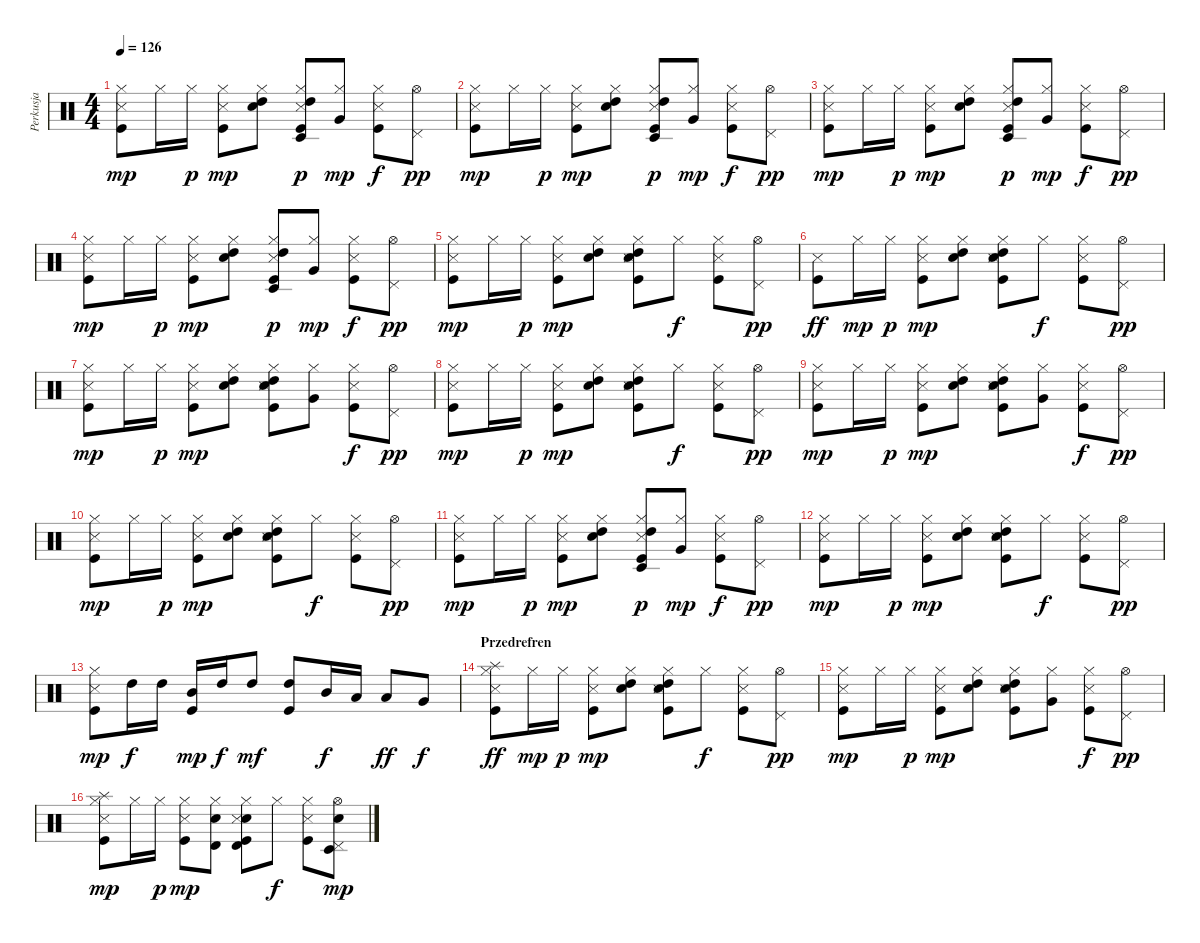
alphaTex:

\track ("Perkusja" "Perkusja") {instrument percussion}
\staff {score}
\articulation defaults
\ts (4 4)
\tempo 126
\clef neutral
\ks c
("Hi-Hat (closed)" "Kick (hit)" "Snare (side stick) 3").8{dy mp} "Hi-Hat (closed)".16 "Hi-Hat (closed)".16{dy p} ("Hi-Hat (closed)" "Kick (hit)" "Snare (side stick) 3").8{dy mp} ("Hi-Hat (closed)" "High Tom (hit)" "Electric Snare (hit)").8 ("Hi-Hat (closed)" "Kick (hit)" "High Tom (hit)" "Timbale low (hit)" "Snare (side stick) 3").8{dy p} ("Hi-Hat (closed)" "Very Low Tom (hit)").8{dy mp} ("Hi-Hat (closed)" "Kick (hit)" "Snare (side stick) 3").8{dy f} ("Hi-Hat (open)" "Pedal Hi-Hat (hit)").8{dy pp} |
("Hi-Hat (closed)" "Kick (hit)" "Snare (side stick) 3").8{dy mp} "Hi-Hat (closed)".16 "Hi-Hat (closed)".16{dy p} ("Hi-Hat (closed)" "Kick (hit)" "Snare (side stick) 3").8{dy mp} ("Hi-Hat (closed)" "High Tom (hit)" "Electric Snare (hit)").8 ("Hi-Hat (closed)" "Kick (hit)" "High Tom (hit)" "Timbale low (hit)" "Snare (side stick) 3").8{dy p} ("Hi-Hat (closed)" "Very Low Tom (hit)").8{dy mp} ("Hi-Hat (closed)" "Kick (hit)" "Snare (side stick) 3").8{dy f} ("Hi-Hat (open)" "Pedal Hi-Hat (hit)").8{dy pp} |
("Hi-Hat (closed)" "Kick (hit)" "Snare (side stick) 3").8{dy mp} "Hi-Hat (closed)".16 "Hi-Hat (closed)".16{dy p} ("Hi-Hat (closed)" "Kick (hit)" "Snare (side stick) 3").8{dy mp} ("Hi-Hat (closed)" "High Tom (hit)" "Electric Snare (hit)").8 ("Hi-Hat (closed)" "Kick (hit)" "High Tom (hit)" "Timbale low (hit)" "Snare (side stick) 3").8{dy p} ("Hi-Hat (closed)" "Very Low Tom (hit)").8{dy mp} ("Hi-Hat (closed)" "Kick (hit)" "Snare (side stick) 3").8{dy f} ("Hi-Hat (open)" "Pedal Hi-Hat (hit)").8{dy pp} |
("Hi-Hat (closed)" "Kick (hit)" "Snare (side stick) 3").8{dy mp} "Hi-Hat (closed)".16 "Hi-Hat (closed)".16{dy p} ("Hi-Hat (closed)" "Kick (hit)" "Snare (side stick) 3").8{dy mp} ("Hi-Hat (closed)" "High Tom (hit)" "Electric Snare (hit)").8 ("Hi-Hat (closed)" "Kick (hit)" "High Tom (hit)" "Timbale low (hit)" "Snare (side stick) 3").8{dy p} ("Hi-Hat (closed)" "Very Low Tom (hit)").8{dy mp} ("Hi-Hat (closed)" "Kick (hit)" "Snare (side stick) 3").8{dy f} ("Hi-Hat (open)" "Pedal Hi-Hat (hit)").8{dy pp} |
("Hi-Hat (closed)" "Kick (hit)" "Snare (side stick) 3").8{dy mp} "Hi-Hat (closed)".16 "Hi-Hat (closed)".16{dy p} ("Hi-Hat (closed)" "Kick (hit)" "Snare (side stick) 3").8{dy mp} ("Hi-Hat (closed)" "High Tom (hit)" "Electric Snare (hit)").8 ("Hi-Hat (closed)" "Kick (hit)" "High Tom (hit)" "Electric Snare (hit)" "Snare (side stick) 3").8 "Hi-Hat (closed)".8{dy f} ("Hi-Hat (closed)" "Kick (hit)" "Snare (side stick) 3").8 ("Hi-Hat (open)" "Pedal Hi-Hat (hit)").8{dy pp} |
("Kick (hit)" "Snare (side stick) 3").8{dy ff} "Hi-Hat (closed)".16{dy mp} "Hi-Hat (closed)".16{dy p} ("Hi-Hat (closed)" "Kick (hit)" "Snare (side stick) 3").8{dy mp} ("Hi-Hat (closed)" "High Tom (hit)" "Electric Snare (hit)").8 ("Hi-Hat (closed)" "Kick (hit)" "High Tom (hit)" "Electric Snare (hit)" "Snare (side stick) 3").8 "Hi-Hat (closed)".8{dy f} ("Hi-Hat (closed)" "Kick (hit)" "Snare (side stick) 3").8 ("Hi-Hat (open)" "Pedal Hi-Hat (hit)").8{dy pp} |
("Hi-Hat (closed)" "Kick (hit)" "Snare (side stick) 3").8{dy mp} "Hi-Hat (closed)".16 "Hi-Hat (closed)".16{dy p} ("Hi-Hat (closed)" "Kick (hit)" "Snare (side stick) 3").8{dy mp} ("Hi-Hat (closed)" "High Tom (hit)" "Electric Snare (hit)").8 ("Hi-Hat (closed)" "Kick (hit)" "High Tom (hit)" "Electric Snare (hit)" "Snare (side stick) 3").8 ("Hi-Hat (closed)" "Very Low Tom (hit)").8 ("Hi-Hat (closed)" "Kick (hit)" "Snare (side stick) 3").8{dy f} ("Hi-Hat (open)" "Pedal Hi-Hat (hit)").8{dy pp} |
("Hi-Hat (closed)" "Kick (hit)" "Snare (side stick) 3").8{dy mp} "Hi-Hat (closed)".16 "Hi-Hat (closed)".16{dy p} ("Hi-Hat (closed)" "Kick (hit)" "Snare (side stick) 3").8{dy mp} ("Hi-Hat (closed)" "High Tom (hit)" "Electric Snare (hit)").8 ("Hi-Hat (closed)" "Kick (hit)" "High Tom (hit)" "Electric Snare (hit)" "Snare (side stick) 3").8 "Hi-Hat (closed)".8{dy f} ("Hi-Hat (closed)" "Kick (hit)" "Snare (side stick) 3").8 ("Hi-Hat (open)" "Pedal Hi-Hat (hit)").8{dy pp} |
("Hi-Hat (closed)" "Kick (hit)" "Snare (side stick) 3").8{dy mp} "Hi-Hat (closed)".16 "Hi-Hat (closed)".16{dy p} ("Hi-Hat (closed)" "Kick (hit)" "Snare (side stick) 3").8{dy mp} ("Hi-Hat (closed)" "High Tom (hit)" "Electric Snare (hit)").8 ("Hi-Hat (closed)" "Kick (hit)" "High Tom (hit)" "Electric Snare (hit)" "Snare (side stick) 3").8 ("Hi-Hat (closed)" "Very Low Tom (hit)").8 ("Hi-Hat (closed)" "Kick (hit)" "Snare (side stick) 3").8{dy f} ("Hi-Hat (open)" "Pedal Hi-Hat (hit)").8{dy pp} |
("Hi-Hat (closed)" "Kick (hit)" "Snare (side stick) 3").8{dy mp} "Hi-Hat (closed)".16 "Hi-Hat (closed)".16{dy p} ("Hi-Hat (closed)" "Kick (hit)" "Snare (side stick) 3").8{dy mp} ("Hi-Hat (closed)" "High Tom (hit)" "Electric Snare (hit)").8 ("Hi-Hat (closed)" "Kick (hit)" "High Tom (hit)" "Electric Snare (hit)" "Snare (side stick) 3").8 "Hi-Hat (closed)".8{dy f} ("Hi-Hat (closed)" "Kick (hit)" "Snare (side stick) 3").8 ("Hi-Hat (open)" "Pedal Hi-Hat (hit)").8{dy pp} |
("Hi-Hat (closed)" "Kick (hit)" "Snare (side stick) 3").8{dy mp} "Hi-Hat (closed)".16 "Hi-Hat (closed)".16{dy p} ("Hi-Hat (closed)" "Kick (hit)" "Snare (side stick) 3").8{dy mp} ("Hi-Hat (closed)" "High Tom (hit)" "Electric Snare (hit)").8 ("Hi-Hat (closed)" "Kick (hit)" "High Tom (hit)" "Timbale low (hit)" "Snare (side stick) 3").8{dy p} ("Hi-Hat (closed)" "Very Low Tom (hit)").8{dy mp} ("Hi-Hat (closed)" "Kick (hit)" "Snare (side stick) 3").8{dy f} ("Hi-Hat (open)" "Pedal Hi-Hat (hit)").8{dy pp} |
("Hi-Hat (closed)" "Kick (hit)" "Snare (side stick) 3").8{dy mp} "Hi-Hat (closed)".16 "Hi-Hat (closed)".16{dy p} ("Hi-Hat (closed)" "Kick (hit)" "Snare (side stick) 3").8{dy mp} ("Hi-Hat (closed)" "High Tom (hit)" "Electric Snare (hit)").8 ("Hi-Hat (closed)" "Kick (hit)" "High Tom (hit)" "Electric Snare (hit)" "Snare (side stick) 3").8 "Hi-Hat (closed)".8{dy f} ("Hi-Hat (closed)" "Kick (hit)" "Snare (side stick) 3").8 ("Hi-Hat (open)" "Pedal Hi-Hat (hit)").8{dy pp} |
("Hi-Hat (closed)" "Kick (hit)" "Snare (side stick) 3").8{dy mp} "High Tom (hit)".16{dy f} "High Tom (hit)".16 ("Kick (hit)" "Mid Tom (hit)").16{dy mp} "High Tom (hit)".16{dy f} "High Tom (hit)".8{dy mf} ("Kick (hit)" "High Tom (hit)").8 "Mid Tom (hit)".16{dy f} "Low Tom (hit)".16 "Low Tom (hit)".8{dy ff} "Very Low Tom (hit)".8{dy f} |
\section ("" "Przedrefren")
("Hi-Hat (closed)" "Kick (hit)" "Splash (hit)" "Snare (side stick) 3").8{dy ff} "Hi-Hat (closed)".16{dy mp} "Hi-Hat (closed)".16{dy p} ("Hi-Hat (closed)" "Kick (hit)" "Snare (side stick) 3").8{dy mp} ("Hi-Hat (closed)" "High Tom (hit)" "Electric Snare (hit)").8 ("Hi-Hat (closed)" "Kick (hit)" "High Tom (hit)" "Electric Snare (hit)" "Snare (side stick) 3").8 "Hi-Hat (closed)".8{dy f} ("Hi-Hat (closed)" "Kick (hit)" "Snare (side stick) 3").8 ("Hi-Hat (open)" "Pedal Hi-Hat (hit)").8{dy pp} |
("Hi-Hat (closed)" "Kick (hit)" "Snare (side stick) 3").8{dy mp} "Hi-Hat (closed)".16 "Hi-Hat (closed)".16{dy p} ("Hi-Hat (closed)" "Kick (hit)" "Snare (side stick) 3").8{dy mp} ("Hi-Hat (closed)" "High Tom (hit)" "Electric Snare (hit)").8 ("Hi-Hat (closed)" "Kick (hit)" "High Tom (hit)" "Electric Snare (hit)" "Snare (side stick) 3").8 ("Hi-Hat (closed)" "Very Low Tom (hit)").8 ("Hi-Hat (closed)" "Kick (hit)" "Snare (side stick) 3").8{dy f} ("Hi-Hat (open)" "Pedal Hi-Hat (hit)").8{dy pp} |
("Hi-Hat (closed)" "Kick (hit)" "Splash (hit)" "Snare (side stick) 3").8{dy mp} "Hi-Hat (closed)".16 "Hi-Hat (closed)".16{dy p} ("Hi-Hat (closed)" "Kick (hit)" "Snare (side stick) 3").8{dy mp} ("Hi-Hat (closed)" "Timbale high (hit)" "Electric Snare (hit)").8 ("Hi-Hat (closed)" "Kick (hit)" "Timbale high (hit)" "Electric Snare (hit)" "Snare (side stick) 3").8 "Hi-Hat (closed)".8{dy f} ("Hi-Hat (closed)" "Kick (hit)" "Snare (side stick) 3").8 ("Hi-Hat (open)" "Pedal Hi-Hat (hit)" "Timbale low (hit)" "Electric Snare (hit)").8{dy mp}
